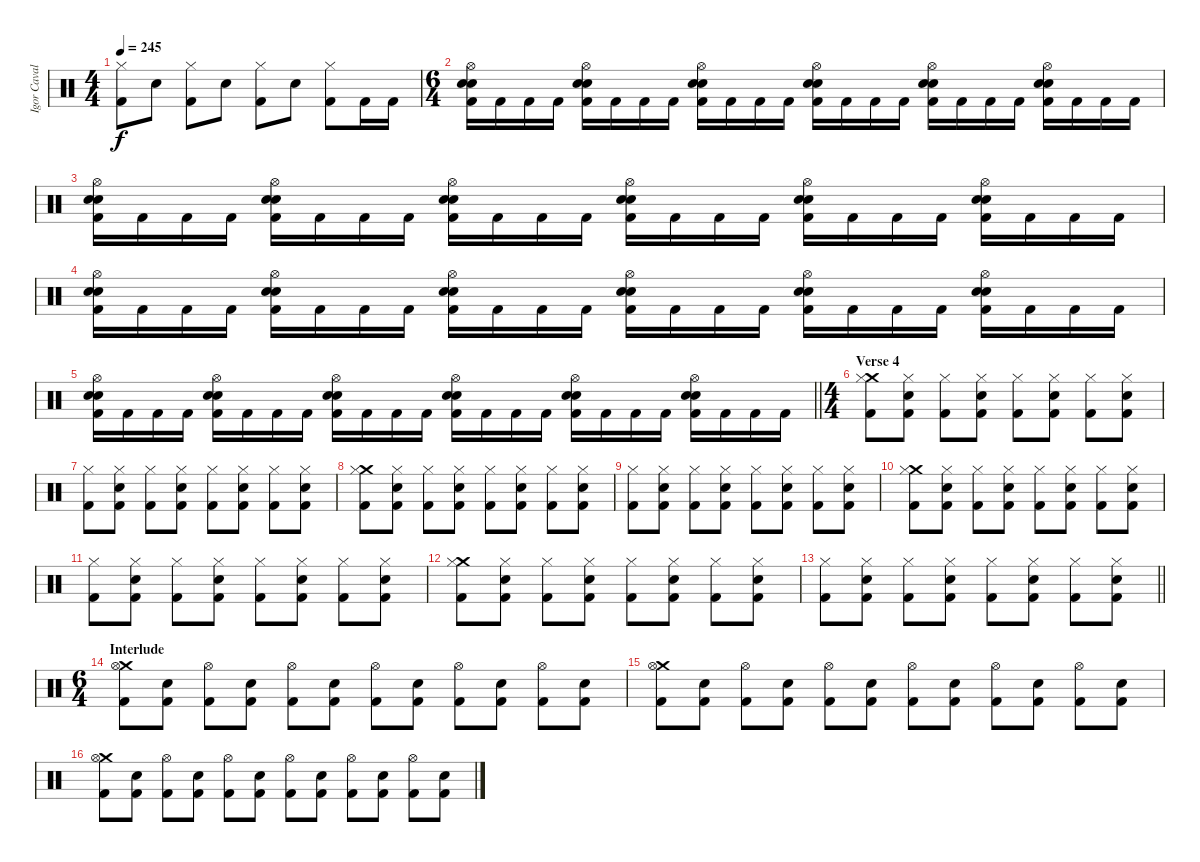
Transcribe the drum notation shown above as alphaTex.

\track ("Igor Cavalera" "Igor Caval") {instrument percussion}
\staff {score}
\articulation defaults
\ts (4 4)
\tempo 245
\clef neutral
\ks c
("Hi-Hat (closed)" "Kick (hit) 2").8{dy f} "Electric Snare (hit)".8 ("Hi-Hat (closed)" "Kick (hit) 2").8 "Electric Snare (hit)".8 ("Hi-Hat (closed)" "Kick (hit) 2").8 "Electric Snare (hit)".8 ("Hi-Hat (closed)" "Kick (hit) 2").8 "Kick (hit) 2".16 "Kick (hit) 2".16 |
\ts (6 4)
("Hi-Hat (open)" "Electric Snare (hit)" "Electric Snare (hit)" "Kick (hit) 2").16 "Kick (hit) 2".16 "Kick (hit) 2".16 "Kick (hit) 2".16 ("Hi-Hat (open)" "Electric Snare (hit)" "Electric Snare (hit)" "Kick (hit) 2").16 "Kick (hit) 2".16 "Kick (hit) 2".16 "Kick (hit) 2".16 ("Hi-Hat (open)" "Electric Snare (hit)" "Electric Snare (hit)" "Kick (hit) 2").16 "Kick (hit) 2".16 "Kick (hit) 2".16 "Kick (hit) 2".16 ("Hi-Hat (open)" "Electric Snare (hit)" "Electric Snare (hit)" "Kick (hit) 2").16 "Kick (hit) 2".16 "Kick (hit) 2".16 "Kick (hit) 2".16 ("Hi-Hat (open)" "Electric Snare (hit)" "Electric Snare (hit)" "Kick (hit) 2").16 "Kick (hit) 2".16 "Kick (hit) 2".16 "Kick (hit) 2".16 ("Hi-Hat (open)" "Electric Snare (hit)" "Electric Snare (hit)" "Kick (hit) 2").16 "Kick (hit) 2".16 "Kick (hit) 2".16 "Kick (hit) 2".16 |
("Hi-Hat (open)" "Electric Snare (hit)" "Electric Snare (hit)" "Kick (hit) 2").16 "Kick (hit) 2".16 "Kick (hit) 2".16 "Kick (hit) 2".16 ("Hi-Hat (open)" "Electric Snare (hit)" "Electric Snare (hit)" "Kick (hit) 2").16 "Kick (hit) 2".16 "Kick (hit) 2".16 "Kick (hit) 2".16 ("Hi-Hat (open)" "Electric Snare (hit)" "Electric Snare (hit)" "Kick (hit) 2").16 "Kick (hit) 2".16 "Kick (hit) 2".16 "Kick (hit) 2".16 ("Hi-Hat (open)" "Electric Snare (hit)" "Electric Snare (hit)" "Kick (hit) 2").16 "Kick (hit) 2".16 "Kick (hit) 2".16 "Kick (hit) 2".16 ("Hi-Hat (open)" "Electric Snare (hit)" "Electric Snare (hit)" "Kick (hit) 2").16 "Kick (hit) 2".16 "Kick (hit) 2".16 "Kick (hit) 2".16 ("Hi-Hat (open)" "Electric Snare (hit)" "Electric Snare (hit)" "Kick (hit) 2").16 "Kick (hit) 2".16 "Kick (hit) 2".16 "Kick (hit) 2".16 |
("Hi-Hat (open)" "Electric Snare (hit)" "Electric Snare (hit)" "Kick (hit) 2").16 "Kick (hit) 2".16 "Kick (hit) 2".16 "Kick (hit) 2".16 ("Hi-Hat (open)" "Electric Snare (hit)" "Electric Snare (hit)" "Kick (hit) 2").16 "Kick (hit) 2".16 "Kick (hit) 2".16 "Kick (hit) 2".16 ("Hi-Hat (open)" "Electric Snare (hit)" "Electric Snare (hit)" "Kick (hit) 2").16 "Kick (hit) 2".16 "Kick (hit) 2".16 "Kick (hit) 2".16 ("Hi-Hat (open)" "Electric Snare (hit)" "Electric Snare (hit)" "Kick (hit) 2").16 "Kick (hit) 2".16 "Kick (hit) 2".16 "Kick (hit) 2".16 ("Hi-Hat (open)" "Electric Snare (hit)" "Electric Snare (hit)" "Kick (hit) 2").16 "Kick (hit) 2".16 "Kick (hit) 2".16 "Kick (hit) 2".16 ("Hi-Hat (open)" "Electric Snare (hit)" "Electric Snare (hit)" "Kick (hit) 2").16 "Kick (hit) 2".16 "Kick (hit) 2".16 "Kick (hit) 2".16 |
\barLineRight lightlight
("Hi-Hat (open)" "Electric Snare (hit)" "Electric Snare (hit)" "Kick (hit) 2").16 "Kick (hit) 2".16 "Kick (hit) 2".16 "Kick (hit) 2".16 ("Hi-Hat (open)" "Electric Snare (hit)" "Electric Snare (hit)" "Kick (hit) 2").16 "Kick (hit) 2".16 "Kick (hit) 2".16 "Kick (hit) 2".16 ("Hi-Hat (open)" "Electric Snare (hit)" "Electric Snare (hit)" "Kick (hit) 2").16 "Kick (hit) 2".16 "Kick (hit) 2".16 "Kick (hit) 2".16 ("Hi-Hat (open)" "Electric Snare (hit)" "Electric Snare (hit)" "Kick (hit) 2").16 "Kick (hit) 2".16 "Kick (hit) 2".16 "Kick (hit) 2".16 ("Hi-Hat (open)" "Electric Snare (hit)" "Electric Snare (hit)" "Kick (hit) 2").16 "Kick (hit) 2".16 "Kick (hit) 2".16 "Kick (hit) 2".16 ("Hi-Hat (open)" "Electric Snare (hit)" "Electric Snare (hit)" "Kick (hit) 2").16 "Kick (hit) 2".16 "Kick (hit) 2".16 "Kick (hit) 2".16 |
\ts (4 4)
\section ("" "Verse 4")
("Crash medium (hit)" "Hi-Hat (closed)" "Kick (hit) 2").8 ("Hi-Hat (closed)" "Electric Snare (hit)" "Kick (hit) 2").8 ("Hi-Hat (closed)" "Kick (hit) 2").8 ("Hi-Hat (closed)" "Electric Snare (hit)" "Kick (hit) 2").8 ("Hi-Hat (closed)" "Kick (hit) 2").8 ("Hi-Hat (closed)" "Electric Snare (hit)" "Kick (hit) 2").8 ("Hi-Hat (closed)" "Kick (hit) 2").8 ("Hi-Hat (closed)" "Electric Snare (hit)" "Kick (hit) 2").8 |
("Hi-Hat (closed)" "Kick (hit) 2").8 ("Hi-Hat (closed)" "Electric Snare (hit)" "Kick (hit) 2").8 ("Hi-Hat (closed)" "Kick (hit) 2").8 ("Hi-Hat (closed)" "Electric Snare (hit)" "Kick (hit) 2").8 ("Hi-Hat (closed)" "Kick (hit) 2").8 ("Hi-Hat (closed)" "Electric Snare (hit)" "Kick (hit) 2").8 ("Hi-Hat (closed)" "Kick (hit) 2").8 ("Hi-Hat (closed)" "Electric Snare (hit)" "Kick (hit) 2").8 |
("Crash medium (hit)" "Hi-Hat (closed)" "Kick (hit) 2").8 ("Hi-Hat (closed)" "Electric Snare (hit)" "Kick (hit) 2").8 ("Hi-Hat (closed)" "Kick (hit) 2").8 ("Hi-Hat (closed)" "Electric Snare (hit)" "Kick (hit) 2").8 ("Hi-Hat (closed)" "Kick (hit) 2").8 ("Hi-Hat (closed)" "Electric Snare (hit)" "Kick (hit) 2").8 ("Hi-Hat (closed)" "Kick (hit) 2").8 ("Hi-Hat (closed)" "Electric Snare (hit)" "Kick (hit) 2").8 |
("Hi-Hat (closed)" "Kick (hit) 2").8 ("Hi-Hat (closed)" "Electric Snare (hit)" "Kick (hit) 2").8 ("Hi-Hat (closed)" "Kick (hit) 2").8 ("Hi-Hat (closed)" "Electric Snare (hit)" "Kick (hit) 2").8 ("Hi-Hat (closed)" "Kick (hit) 2").8 ("Hi-Hat (closed)" "Electric Snare (hit)" "Kick (hit) 2").8 ("Hi-Hat (closed)" "Kick (hit) 2").8 ("Hi-Hat (closed)" "Electric Snare (hit)" "Kick (hit) 2").8 |
("Crash medium (hit)" "Hi-Hat (closed)" "Kick (hit) 2").8 ("Hi-Hat (closed)" "Electric Snare (hit)" "Kick (hit) 2").8 ("Hi-Hat (closed)" "Kick (hit) 2").8 ("Hi-Hat (closed)" "Electric Snare (hit)" "Kick (hit) 2").8 ("Hi-Hat (closed)" "Kick (hit) 2").8 ("Hi-Hat (closed)" "Electric Snare (hit)" "Kick (hit) 2").8 ("Hi-Hat (closed)" "Kick (hit) 2").8 ("Hi-Hat (closed)" "Electric Snare (hit)" "Kick (hit) 2").8 |
("Hi-Hat (closed)" "Kick (hit) 2").8 ("Hi-Hat (closed)" "Electric Snare (hit)" "Kick (hit) 2").8 ("Hi-Hat (closed)" "Kick (hit) 2").8 ("Hi-Hat (closed)" "Electric Snare (hit)" "Kick (hit) 2").8 ("Hi-Hat (closed)" "Kick (hit) 2").8 ("Hi-Hat (closed)" "Electric Snare (hit)" "Kick (hit) 2").8 ("Hi-Hat (closed)" "Kick (hit) 2").8 ("Hi-Hat (closed)" "Electric Snare (hit)" "Kick (hit) 2").8 |
("Crash medium (hit)" "Hi-Hat (closed)" "Kick (hit) 2").8 ("Hi-Hat (closed)" "Electric Snare (hit)" "Kick (hit) 2").8 ("Hi-Hat (closed)" "Kick (hit) 2").8 ("Hi-Hat (closed)" "Electric Snare (hit)" "Kick (hit) 2").8 ("Hi-Hat (closed)" "Kick (hit) 2").8 ("Hi-Hat (closed)" "Electric Snare (hit)" "Kick (hit) 2").8 ("Hi-Hat (closed)" "Kick (hit) 2").8 ("Hi-Hat (closed)" "Electric Snare (hit)" "Kick (hit) 2").8 |
\barLineRight lightlight
("Hi-Hat (closed)" "Kick (hit) 2").8 ("Hi-Hat (closed)" "Electric Snare (hit)" "Kick (hit) 2").8 ("Hi-Hat (closed)" "Kick (hit) 2").8 ("Hi-Hat (closed)" "Electric Snare (hit)" "Kick (hit) 2").8 ("Hi-Hat (closed)" "Kick (hit) 2").8 ("Hi-Hat (closed)" "Electric Snare (hit)" "Kick (hit) 2").8 ("Hi-Hat (closed)" "Kick (hit) 2").8 ("Hi-Hat (closed)" "Electric Snare (hit)" "Kick (hit) 2").8 |
\ts (6 4)
\section ("" "Interlude")
("Crash medium (hit)" "Hi-Hat (open)" "Kick (hit) 2").8 ("Electric Snare (hit)" "Kick (hit) 2").8 ("Hi-Hat (open)" "Kick (hit) 2").8 ("Electric Snare (hit)" "Kick (hit) 2").8 ("Hi-Hat (open)" "Kick (hit) 2").8 ("Electric Snare (hit)" "Kick (hit) 2").8 ("Hi-Hat (open)" "Kick (hit) 2").8 ("Electric Snare (hit)" "Kick (hit) 2").8 ("Hi-Hat (open)" "Kick (hit) 2").8 ("Electric Snare (hit)" "Kick (hit) 2").8 ("Hi-Hat (open)" "Kick (hit) 2").8 ("Electric Snare (hit)" "Kick (hit) 2").8 |
("Crash medium (hit)" "Hi-Hat (open)" "Kick (hit) 2").8 ("Electric Snare (hit)" "Kick (hit) 2").8 ("Hi-Hat (open)" "Kick (hit) 2").8 ("Electric Snare (hit)" "Kick (hit) 2").8 ("Hi-Hat (open)" "Kick (hit) 2").8 ("Electric Snare (hit)" "Kick (hit) 2").8 ("Hi-Hat (open)" "Kick (hit) 2").8 ("Electric Snare (hit)" "Kick (hit) 2").8 ("Hi-Hat (open)" "Kick (hit) 2").8 ("Electric Snare (hit)" "Kick (hit) 2").8 ("Hi-Hat (open)" "Kick (hit) 2").8 ("Electric Snare (hit)" "Kick (hit) 2").8 |
("Crash medium (hit)" "Hi-Hat (open)" "Kick (hit) 2").8 ("Electric Snare (hit)" "Kick (hit) 2").8 ("Hi-Hat (open)" "Kick (hit) 2").8 ("Electric Snare (hit)" "Kick (hit) 2").8 ("Hi-Hat (open)" "Kick (hit) 2").8 ("Electric Snare (hit)" "Kick (hit) 2").8 ("Hi-Hat (open)" "Kick (hit) 2").8 ("Electric Snare (hit)" "Kick (hit) 2").8 ("Hi-Hat (open)" "Kick (hit) 2").8 ("Electric Snare (hit)" "Kick (hit) 2").8 ("Hi-Hat (open)" "Kick (hit) 2").8 ("Electric Snare (hit)" "Kick (hit) 2").8
